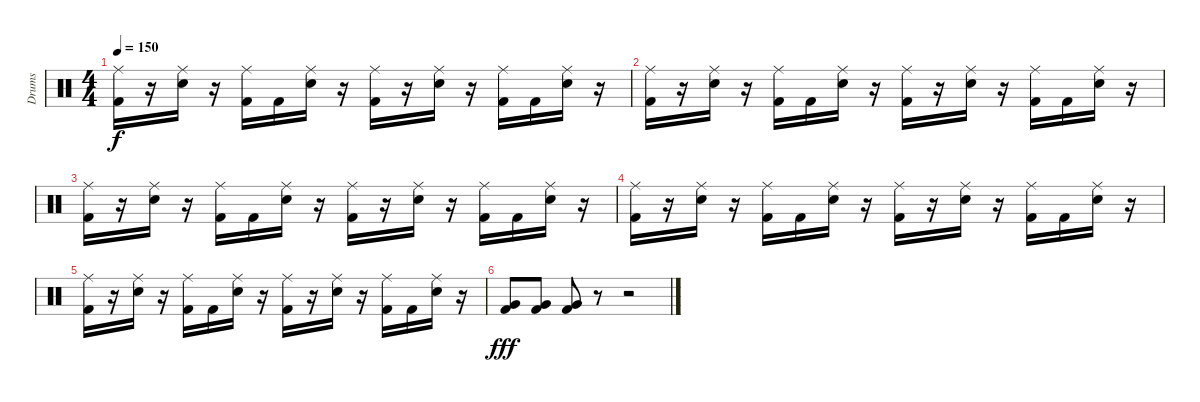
\track ("Drums" "Drums") {instrument percussion}
\staff {score}
\articulation defaults
\ts (4 4)
\tempo 150
\clef neutral
\ks c
("Ride (middle)" "Kick (hit) 2").16{dy f} r.16 ("Ride (middle)" "Electric Snare (hit)").16 r.16 ("Ride (middle)" "Kick (hit) 2").16 "Kick (hit) 2".16 ("Ride (middle)" "Electric Snare (hit)").16 r.16 ("Ride (middle)" "Kick (hit) 2").16 r.16 ("Ride (middle)" "Electric Snare (hit)").16 r.16 ("Ride (middle)" "Kick (hit) 2").16 "Kick (hit) 2".16 ("Ride (middle)" "Electric Snare (hit)").16 r.16 |
("Ride (middle)" "Kick (hit) 2").16 r.16 ("Ride (middle)" "Electric Snare (hit)").16 r.16 ("Ride (middle)" "Kick (hit) 2").16 "Kick (hit) 2".16 ("Ride (middle)" "Electric Snare (hit)").16 r.16 ("Ride (middle)" "Kick (hit) 2").16 r.16 ("Ride (middle)" "Electric Snare (hit)").16 r.16 ("Ride (middle)" "Kick (hit) 2").16 "Kick (hit) 2".16 ("Ride (middle)" "Electric Snare (hit)").16 r.16 |
("Ride (middle)" "Kick (hit) 2").16 r.16 ("Ride (middle)" "Electric Snare (hit)").16 r.16 ("Ride (middle)" "Kick (hit) 2").16 "Kick (hit) 2".16 ("Ride (middle)" "Electric Snare (hit)").16 r.16 ("Ride (middle)" "Kick (hit) 2").16 r.16 ("Ride (middle)" "Electric Snare (hit)").16 r.16 ("Ride (middle)" "Kick (hit) 2").16 "Kick (hit) 2".16 ("Ride (middle)" "Electric Snare (hit)").16 r.16 |
("Ride (middle)" "Kick (hit) 2").16 r.16 ("Ride (middle)" "Electric Snare (hit)").16 r.16 ("Ride (middle)" "Kick (hit) 2").16 "Kick (hit) 2".16 ("Ride (middle)" "Electric Snare (hit)").16 r.16 ("Ride (middle)" "Kick (hit) 2").16 r.16 ("Ride (middle)" "Electric Snare (hit)").16 r.16 ("Ride (middle)" "Kick (hit) 2").16 "Kick (hit) 2".16 ("Ride (middle)" "Electric Snare (hit)").16 r.16 |
("Ride (middle)" "Kick (hit) 2").16 r.16 ("Ride (middle)" "Electric Snare (hit)").16 r.16 ("Ride (middle)" "Kick (hit) 2").16 "Kick (hit) 2".16 ("Ride (middle)" "Electric Snare (hit)").16 r.16 ("Ride (middle)" "Kick (hit) 2").16 r.16 ("Ride (middle)" "Electric Snare (hit)").16 r.16 ("Ride (middle)" "Kick (hit) 2").16 "Kick (hit) 2".16 ("Ride (middle)" "Electric Snare (hit)").16 r.16 |
("Very Low Tom (hit)" "Kick (hit) 2").8{dy fff} ("Very Low Tom (hit)" "Kick (hit) 2").8 ("Very Low Tom (hit)" "Kick (hit) 2").8 r.8 r.2
